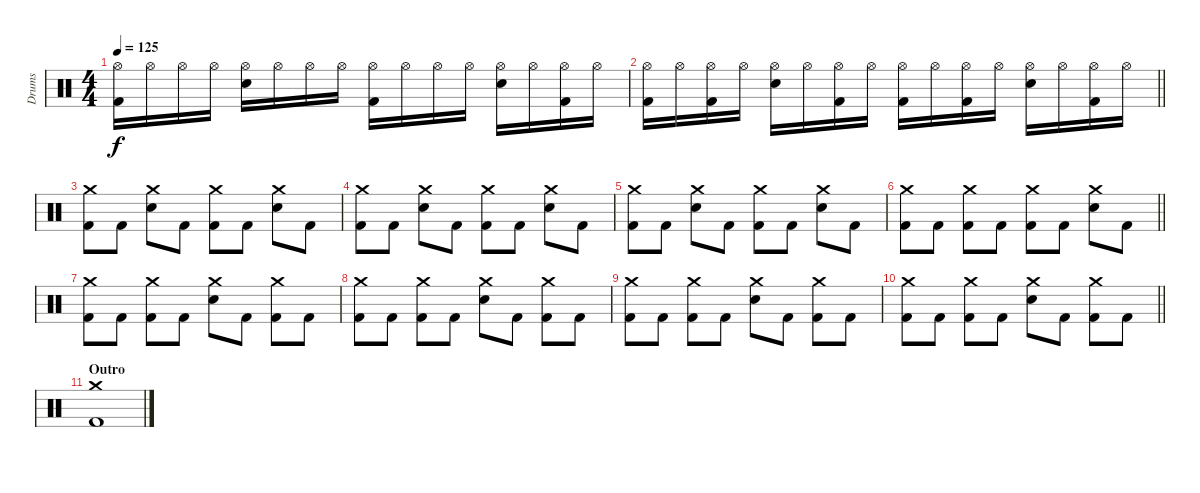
\track ("Drums" "Drums") {instrument percussion}
\staff {score}
\articulation defaults
\ts (4 4)
\tempo 125
\clef neutral
\ks c
("Hi-Hat (open)" "Kick (hit) 2").16{dy f} "Hi-Hat (open)".16 "Hi-Hat (open)".16 "Hi-Hat (open)".16 ("Hi-Hat (open)" "Electric Snare (hit)").16 "Hi-Hat (open)".16 "Hi-Hat (open)".16 "Hi-Hat (open)".16 ("Hi-Hat (open)" "Kick (hit) 2").16 "Hi-Hat (open)".16 "Hi-Hat (open)".16 "Hi-Hat (open)".16 ("Hi-Hat (open)" "Electric Snare (hit)").16 "Hi-Hat (open)".16 ("Hi-Hat (open)" "Kick (hit) 2").16 "Hi-Hat (open)".16 |
\barLineRight lightlight
("Hi-Hat (open)" "Kick (hit) 2").16 "Hi-Hat (open)".16 ("Hi-Hat (open)" "Kick (hit) 2").16 "Hi-Hat (open)".16 ("Hi-Hat (open)" "Electric Snare (hit)").16 "Hi-Hat (open)".16 ("Hi-Hat (open)" "Kick (hit) 2").16 "Hi-Hat (open)".16 ("Hi-Hat (open)" "Kick (hit) 2").16 "Hi-Hat (open)".16 ("Hi-Hat (open)" "Kick (hit) 2").16 "Hi-Hat (open)".16 ("Hi-Hat (open)" "Electric Snare (hit)").16 "Hi-Hat (open)".16 ("Hi-Hat (open)" "Kick (hit) 2").16 "Hi-Hat (open)".16 |
\section ("" "")
("Crash medium (hit)" "Kick (hit) 2").8 "Kick (hit) 2".8 ("Crash medium (hit)" "Electric Snare (hit)").8 "Kick (hit) 2".8 ("Crash medium (hit)" "Kick (hit) 2").8 "Kick (hit) 2".8 ("Crash medium (hit)" "Electric Snare (hit)").8 "Kick (hit) 2".8 |
("Crash medium (hit)" "Kick (hit) 2").8 "Kick (hit) 2".8 ("Crash medium (hit)" "Electric Snare (hit)").8 "Kick (hit) 2".8 ("Crash medium (hit)" "Kick (hit) 2").8 "Kick (hit) 2".8 ("Crash medium (hit)" "Electric Snare (hit)").8 "Kick (hit) 2".8 |
("Crash medium (hit)" "Kick (hit) 2").8 "Kick (hit) 2".8 ("Crash medium (hit)" "Electric Snare (hit)").8 "Kick (hit) 2".8 ("Crash medium (hit)" "Kick (hit) 2").8 "Kick (hit) 2".8 ("Crash medium (hit)" "Electric Snare (hit)").8 "Kick (hit) 2".8 |
\barLineRight lightlight
("Crash medium (hit)" "Kick (hit) 2").8 "Kick (hit) 2".8 ("Crash medium (hit)" "Kick (hit) 2").8 "Kick (hit) 2".8 ("Crash medium (hit)" "Kick (hit) 2").8 "Kick (hit) 2".8 ("Crash medium (hit)" "Electric Snare (hit)").8 "Kick (hit) 2".8 |
("Crash medium (hit)" "Kick (hit) 2").8 "Kick (hit) 2".8 ("Crash medium (hit)" "Kick (hit) 2").8 "Kick (hit) 2".8 ("Crash medium (hit)" "Electric Snare (hit)").8 "Kick (hit) 2".8 ("Crash medium (hit)" "Kick (hit) 2").8 "Kick (hit) 2".8 |
("Crash medium (hit)" "Kick (hit) 2").8 "Kick (hit) 2".8 ("Crash medium (hit)" "Kick (hit) 2").8 "Kick (hit) 2".8 ("Crash medium (hit)" "Electric Snare (hit)").8 "Kick (hit) 2".8 ("Crash medium (hit)" "Kick (hit) 2").8 "Kick (hit) 2".8 |
("Crash medium (hit)" "Kick (hit) 2").8 "Kick (hit) 2".8 ("Crash medium (hit)" "Kick (hit) 2").8 "Kick (hit) 2".8 ("Crash medium (hit)" "Electric Snare (hit)").8 "Kick (hit) 2".8 ("Crash medium (hit)" "Kick (hit) 2").8 "Kick (hit) 2".8 |
\barLineRight lightlight
("Crash medium (hit)" "Kick (hit) 2").8 "Kick (hit) 2".8 ("Crash medium (hit)" "Kick (hit) 2").8 "Kick (hit) 2".8 ("Crash medium (hit)" "Electric Snare (hit)").8 "Kick (hit) 2".8 ("Crash medium (hit)" "Kick (hit) 2").8 "Kick (hit) 2".8 |
\section ("" "Outro")
("Crash medium (hit)" "Kick (hit) 2").1
